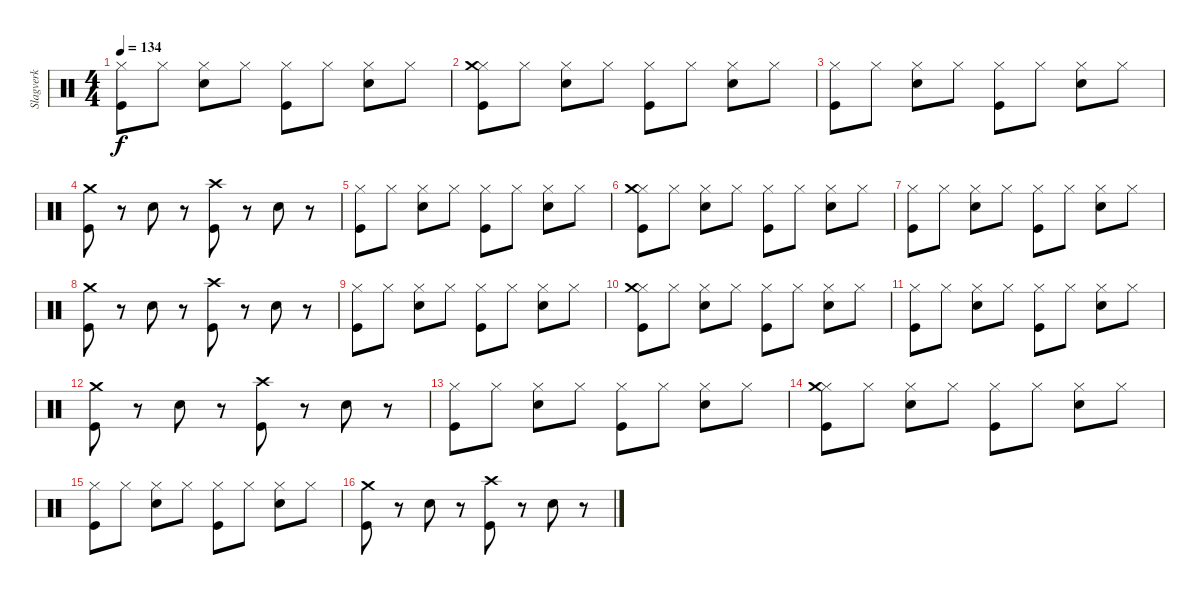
\track ("Slagverk" "Slagverk") {instrument percussion}
\staff
\articulation defaults
\ts (4 4)
\tempo 134
\clef neutral
\ks c
("Hi-Hat (closed)" "Kick (hit)").8{dy f} "Hi-Hat (closed)".8 ("Hi-Hat (closed)" "Electric Snare (hit)").8 "Hi-Hat (closed)".8 ("Hi-Hat (closed)" "Kick (hit)").8 "Hi-Hat (closed)".8 ("Hi-Hat (closed)" "Electric Snare (hit)").8 "Hi-Hat (closed)".8 |
("Hi-Hat (closed)" "Crash medium (hit)" "Kick (hit)").8 "Hi-Hat (closed)".8 ("Hi-Hat (closed)" "Electric Snare (hit)").8 "Hi-Hat (closed)".8 ("Hi-Hat (closed)" "Kick (hit)").8 "Hi-Hat (closed)".8 ("Hi-Hat (closed)" "Electric Snare (hit)").8 "Hi-Hat (closed)".8 |
("Hi-Hat (closed)" "Kick (hit)").8 "Hi-Hat (closed)".8 ("Hi-Hat (closed)" "Electric Snare (hit)").8 "Hi-Hat (closed)".8 ("Hi-Hat (closed)" "Kick (hit)").8 "Hi-Hat (closed)".8 ("Hi-Hat (closed)" "Electric Snare (hit)").8 "Hi-Hat (closed)".8 |
("Crash medium (hit)" "Kick (hit)").8 r.8 "Electric Snare (hit)".8 r.8 ("Crash high (hit)" "Kick (hit)").8 r.8 "Electric Snare (hit)".8 r.8 |
("Hi-Hat (closed)" "Kick (hit)").8 "Hi-Hat (closed)".8 ("Hi-Hat (closed)" "Electric Snare (hit)").8 "Hi-Hat (closed)".8 ("Hi-Hat (closed)" "Kick (hit)").8 "Hi-Hat (closed)".8 ("Hi-Hat (closed)" "Electric Snare (hit)").8 "Hi-Hat (closed)".8 |
("Hi-Hat (closed)" "Crash medium (hit)" "Kick (hit)").8 "Hi-Hat (closed)".8 ("Hi-Hat (closed)" "Electric Snare (hit)").8 "Hi-Hat (closed)".8 ("Hi-Hat (closed)" "Kick (hit)").8 "Hi-Hat (closed)".8 ("Hi-Hat (closed)" "Electric Snare (hit)").8 "Hi-Hat (closed)".8 |
("Hi-Hat (closed)" "Kick (hit)").8 "Hi-Hat (closed)".8 ("Hi-Hat (closed)" "Electric Snare (hit)").8 "Hi-Hat (closed)".8 ("Hi-Hat (closed)" "Kick (hit)").8 "Hi-Hat (closed)".8 ("Hi-Hat (closed)" "Electric Snare (hit)").8 "Hi-Hat (closed)".8 |
("Crash medium (hit)" "Kick (hit)").8 r.8 "Electric Snare (hit)".8 r.8 ("Crash high (hit)" "Kick (hit)").8 r.8 "Electric Snare (hit)".8 r.8 |
("Hi-Hat (closed)" "Kick (hit)").8 "Hi-Hat (closed)".8 ("Hi-Hat (closed)" "Electric Snare (hit)").8 "Hi-Hat (closed)".8 ("Hi-Hat (closed)" "Kick (hit)").8 "Hi-Hat (closed)".8 ("Hi-Hat (closed)" "Electric Snare (hit)").8 "Hi-Hat (closed)".8 |
("Hi-Hat (closed)" "Crash medium (hit)" "Kick (hit)").8 "Hi-Hat (closed)".8 ("Hi-Hat (closed)" "Electric Snare (hit)").8 "Hi-Hat (closed)".8 ("Hi-Hat (closed)" "Kick (hit)").8 "Hi-Hat (closed)".8 ("Hi-Hat (closed)" "Electric Snare (hit)").8 "Hi-Hat (closed)".8 |
("Hi-Hat (closed)" "Kick (hit)").8 "Hi-Hat (closed)".8 ("Hi-Hat (closed)" "Electric Snare (hit)").8 "Hi-Hat (closed)".8 ("Hi-Hat (closed)" "Kick (hit)").8 "Hi-Hat (closed)".8 ("Hi-Hat (closed)" "Electric Snare (hit)").8 "Hi-Hat (closed)".8 |
("Crash medium (hit)" "Kick (hit)").8 r.8 "Electric Snare (hit)".8 r.8 ("Crash high (hit)" "Kick (hit)").8 r.8 "Electric Snare (hit)".8 r.8 |
("Hi-Hat (closed)" "Kick (hit)").8 "Hi-Hat (closed)".8 ("Hi-Hat (closed)" "Electric Snare (hit)").8 "Hi-Hat (closed)".8 ("Hi-Hat (closed)" "Kick (hit)").8 "Hi-Hat (closed)".8 ("Hi-Hat (closed)" "Electric Snare (hit)").8 "Hi-Hat (closed)".8 |
("Hi-Hat (closed)" "Crash medium (hit)" "Kick (hit)").8 "Hi-Hat (closed)".8 ("Hi-Hat (closed)" "Electric Snare (hit)").8 "Hi-Hat (closed)".8 ("Hi-Hat (closed)" "Kick (hit)").8 "Hi-Hat (closed)".8 ("Hi-Hat (closed)" "Electric Snare (hit)").8 "Hi-Hat (closed)".8 |
("Hi-Hat (closed)" "Kick (hit)").8 "Hi-Hat (closed)".8 ("Hi-Hat (closed)" "Electric Snare (hit)").8 "Hi-Hat (closed)".8 ("Hi-Hat (closed)" "Kick (hit)").8 "Hi-Hat (closed)".8 ("Hi-Hat (closed)" "Electric Snare (hit)").8 "Hi-Hat (closed)".8 |
("Crash medium (hit)" "Kick (hit)").8 r.8 "Electric Snare (hit)".8 r.8 ("Crash high (hit)" "Kick (hit)").8 r.8 "Electric Snare (hit)".8 r.8
